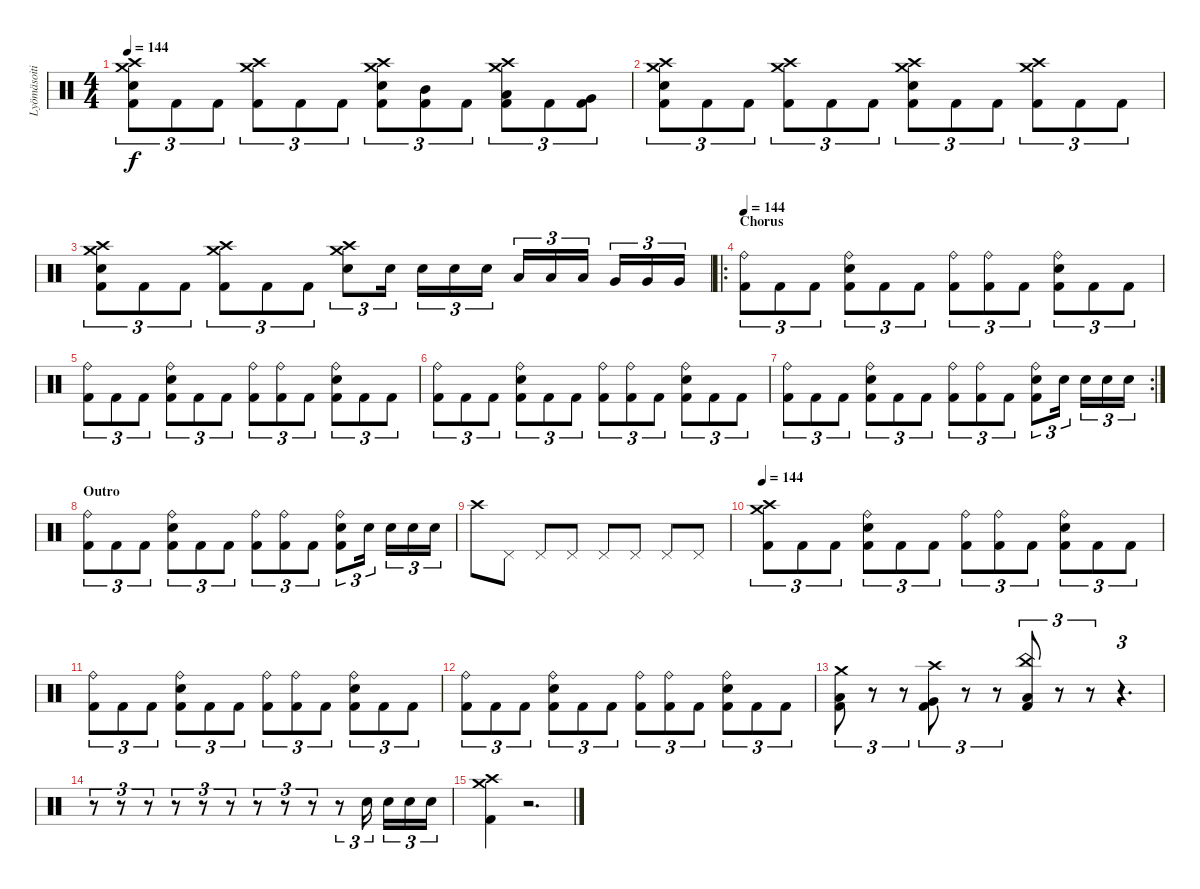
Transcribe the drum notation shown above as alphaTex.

\track ("Lyömäsoitin" "Lyömäsoiti") {instrument percussion}
\staff {score}
\articulation defaults
\ts (4 4)
\tempo 144
\clef neutral
\ks c
("Crash medium (hit)" "Crash high (hit)" "Snare (hit) 2" "Kick (hit) 2").8{tu (3 2) dy f} "Kick (hit) 2".8{tu (3 2)} "Kick (hit) 2".8{tu (3 2)} ("Crash medium (hit)" "Crash high (hit)" "Kick (hit) 2").8{tu (3 2)} "Kick (hit) 2".8{tu (3 2)} "Kick (hit) 2".8{tu (3 2)} ("Crash medium (hit)" "Crash high (hit)" "Snare (hit) 2" "Kick (hit) 2").8{tu (3 2)} ("Mid Tom (hit)" "Kick (hit) 2").8{tu (3 2)} "Kick (hit) 2".8{tu (3 2)} ("Crash medium (hit)" "Crash high (hit)" "Low Tom (hit)" "Kick (hit) 2").8{tu (3 2)} "Kick (hit) 2".8{tu (3 2)} ("Very Low Tom (hit)" "Kick (hit) 2").8{tu (3 2)} |
("Crash medium (hit)" "Crash high (hit)" "Snare (hit) 2" "Kick (hit) 2").8{tu (3 2)} "Kick (hit) 2".8{tu (3 2)} "Kick (hit) 2".8{tu (3 2)} ("Crash medium (hit)" "Crash high (hit)" "Kick (hit) 2").8{tu (3 2)} "Kick (hit) 2".8{tu (3 2)} "Kick (hit) 2".8{tu (3 2)} ("Crash medium (hit)" "Crash high (hit)" "Snare (hit) 2" "Kick (hit) 2").8{tu (3 2)} "Kick (hit) 2".8{tu (3 2)} "Kick (hit) 2".8{tu (3 2)} ("Crash medium (hit)" "Crash high (hit)" "Kick (hit) 2").8{tu (3 2)} "Kick (hit) 2".8{tu (3 2)} "Kick (hit) 2".8{tu (3 2)} |
("Crash medium (hit)" "Crash high (hit)" "Snare (hit) 2" "Kick (hit) 2").8{tu (3 2)} "Kick (hit) 2".8{tu (3 2)} "Kick (hit) 2".8{tu (3 2)} ("Crash medium (hit)" "Crash high (hit)" "Kick (hit) 2").8{tu (3 2)} "Kick (hit) 2".8{tu (3 2)} "Kick (hit) 2".8{tu (3 2)} ("Crash medium (hit)" "Crash high (hit)" "Snare (hit) 2").8{tu (3 2)} "Snare (hit) 2".16{tu (3 2)} "Snare (hit) 2".16{tu (3 2)} "Snare (hit) 2".16{tu (3 2)} "Snare (hit) 2".16{tu (3 2)} "Low Tom (hit)".16{tu (3 2)} "Low Tom (hit)".16{tu (3 2)} "Low Tom (hit)".16{tu (3 2)} "Very Low Tom (hit)".16{tu (3 2)} "Very Low Tom (hit)".16{tu (3 2)} "Very Low Tom (hit)".16{tu (3 2)} |
\ro
\section ("" "Chorus")
\tempo 144
("Ride (bell)" "Kick (hit) 2").8{tu (3 2)} "Kick (hit) 2".8{tu (3 2)} "Kick (hit) 2".8{tu (3 2)} ("Ride (bell)" "Snare (hit) 2" "Kick (hit) 2").8{tu (3 2)} "Kick (hit) 2".8{tu (3 2)} "Kick (hit) 2".8{tu (3 2)} ("Ride (bell)" "Kick (hit) 2").8{tu (3 2)} ("Ride (bell)" "Kick (hit) 2").8{tu (3 2)} "Kick (hit) 2".8{tu (3 2)} ("Ride (bell)" "Snare (hit) 2" "Kick (hit) 2").8{tu (3 2)} "Kick (hit) 2".8{tu (3 2)} "Kick (hit) 2".8{tu (3 2)} |
("Ride (bell)" "Kick (hit) 2").8{tu (3 2)} "Kick (hit) 2".8{tu (3 2)} "Kick (hit) 2".8{tu (3 2)} ("Ride (bell)" "Snare (hit) 2" "Kick (hit) 2").8{tu (3 2)} "Kick (hit) 2".8{tu (3 2)} "Kick (hit) 2".8{tu (3 2)} ("Ride (bell)" "Kick (hit) 2").8{tu (3 2)} ("Ride (bell)" "Kick (hit) 2").8{tu (3 2)} "Kick (hit) 2".8{tu (3 2)} ("Ride (bell)" "Snare (hit) 2" "Kick (hit) 2").8{tu (3 2)} "Kick (hit) 2".8{tu (3 2)} "Kick (hit) 2".8{tu (3 2)} |
("Ride (bell)" "Kick (hit) 2").8{tu (3 2)} "Kick (hit) 2".8{tu (3 2)} "Kick (hit) 2".8{tu (3 2)} ("Ride (bell)" "Snare (hit) 2" "Kick (hit) 2").8{tu (3 2)} "Kick (hit) 2".8{tu (3 2)} "Kick (hit) 2".8{tu (3 2)} ("Ride (bell)" "Kick (hit) 2").8{tu (3 2)} ("Ride (bell)" "Kick (hit) 2").8{tu (3 2)} "Kick (hit) 2".8{tu (3 2)} ("Ride (bell)" "Snare (hit) 2" "Kick (hit) 2").8{tu (3 2)} "Kick (hit) 2".8{tu (3 2)} "Kick (hit) 2".8{tu (3 2)} |
\rc 2
("Ride (bell)" "Kick (hit) 2").8{tu (3 2)} "Kick (hit) 2".8{tu (3 2)} "Kick (hit) 2".8{tu (3 2)} ("Ride (bell)" "Snare (hit) 2" "Kick (hit) 2").8{tu (3 2)} "Kick (hit) 2".8{tu (3 2)} "Kick (hit) 2".8{tu (3 2)} ("Ride (bell)" "Kick (hit) 2").8{tu (3 2)} ("Ride (bell)" "Kick (hit) 2").8{tu (3 2)} "Kick (hit) 2".8{tu (3 2)} ("Ride (bell)" "Snare (hit) 2" "Kick (hit) 2").8{tu (3 2)} "Snare (hit) 2".16{tu (3 2)} "Snare (hit) 2".16{tu (3 2)} "Snare (hit) 2".16{tu (3 2)} "Snare (hit) 2".16{tu (3 2)} |
\section ("" "Outro")
("Ride (bell)" "Kick (hit) 2").8{tu (3 2)} "Kick (hit) 2".8{tu (3 2)} "Kick (hit) 2".8{tu (3 2)} ("Ride (bell)" "Snare (hit) 2" "Kick (hit) 2").8{tu (3 2)} "Kick (hit) 2".8{tu (3 2)} "Kick (hit) 2".8{tu (3 2)} ("Ride (bell)" "Kick (hit) 2").8{tu (3 2)} ("Ride (bell)" "Kick (hit) 2").8{tu (3 2)} "Kick (hit) 2".8{tu (3 2)} ("Ride (bell)" "Snare (hit) 2" "Kick (hit) 2").8{tu (3 2)} "Snare (hit) 2".16{tu (3 2)} "Snare (hit) 2".16{tu (3 2)} "Snare (hit) 2".16{tu (3 2)} "Snare (hit) 2".16{tu (3 2)} |
"Crash high (hit)".8 "Pedal Hi-Hat (hit)".8 "Pedal Hi-Hat (hit)".8 "Pedal Hi-Hat (hit)".8 "Pedal Hi-Hat (hit)".8 "Pedal Hi-Hat (hit)".8 "Pedal Hi-Hat (hit)".8 "Pedal Hi-Hat (hit)".8 |
\tempo 144
("Crash medium (hit)" "Crash high (hit)" "Kick (hit) 2").8{tu (3 2)} "Kick (hit) 2".8{tu (3 2)} "Kick (hit) 2".8{tu (3 2)} ("Ride (bell)" "Snare (hit) 2" "Kick (hit) 2").8{tu (3 2)} "Kick (hit) 2".8{tu (3 2)} "Kick (hit) 2".8{tu (3 2)} ("Ride (bell)" "Kick (hit) 2").8{tu (3 2)} ("Ride (bell)" "Kick (hit) 2").8{tu (3 2)} "Kick (hit) 2".8{tu (3 2)} ("Ride (bell)" "Snare (hit) 2" "Kick (hit) 2").8{tu (3 2)} "Kick (hit) 2".8{tu (3 2)} "Kick (hit) 2".8{tu (3 2)} |
("Ride (bell)" "Kick (hit) 2").8{tu (3 2)} "Kick (hit) 2".8{tu (3 2)} "Kick (hit) 2".8{tu (3 2)} ("Ride (bell)" "Snare (hit) 2" "Kick (hit) 2").8{tu (3 2)} "Kick (hit) 2".8{tu (3 2)} "Kick (hit) 2".8{tu (3 2)} ("Ride (bell)" "Kick (hit) 2").8{tu (3 2)} ("Ride (bell)" "Kick (hit) 2").8{tu (3 2)} "Kick (hit) 2".8{tu (3 2)} ("Ride (bell)" "Snare (hit) 2" "Kick (hit) 2").8{tu (3 2)} "Kick (hit) 2".8{tu (3 2)} "Kick (hit) 2".8{tu (3 2)} |
("Ride (bell)" "Kick (hit) 2").8{tu (3 2)} "Kick (hit) 2".8{tu (3 2)} "Kick (hit) 2".8{tu (3 2)} ("Ride (bell)" "Snare (hit) 2" "Kick (hit) 2").8{tu (3 2)} "Kick (hit) 2".8{tu (3 2)} "Kick (hit) 2".8{tu (3 2)} ("Ride (bell)" "Kick (hit) 2").8{tu (3 2)} ("Ride (bell)" "Kick (hit) 2").8{tu (3 2)} "Kick (hit) 2".8{tu (3 2)} ("Ride (bell)" "Snare (hit) 2" "Kick (hit) 2").8{tu (3 2)} "Kick (hit) 2".8{tu (3 2)} "Kick (hit) 2".8{tu (3 2)} |
("Crash medium (hit)" "Low Tom (hit)" "Kick (hit) 2").8{tu (3 2)} r.8{tu (3 2)} r.8{tu (3 2)} ("Crash high (hit)" "Very Low Tom (hit)" "Kick (hit) 2").8{tu (3 2)} r.8{tu (3 2)} r.8{tu (3 2)} ("China (hit)" "Low Floor Tom (hit)" "Kick (hit) 2").8{tu (3 2)} r.8{tu (3 2)} r.8{tu (3 2)} r.4{d tu (3 2)} |
r.8{tu (3 2)} r.8{tu (3 2)} r.8{tu (3 2)} r.8{tu (3 2)} r.8{tu (3 2)} r.8{tu (3 2)} r.8{tu (3 2)} r.8{tu (3 2)} r.8{tu (3 2)} r.8{tu (3 2)} "Snare (hit) 2".16{tu (3 2)} "Snare (hit) 2".16{tu (3 2)} "Snare (hit) 2".16{tu (3 2)} "Snare (hit) 2".16{tu (3 2)} |
("Crash medium (hit)" "Crash high (hit)" "Kick (hit) 2").4 r.2{d}
